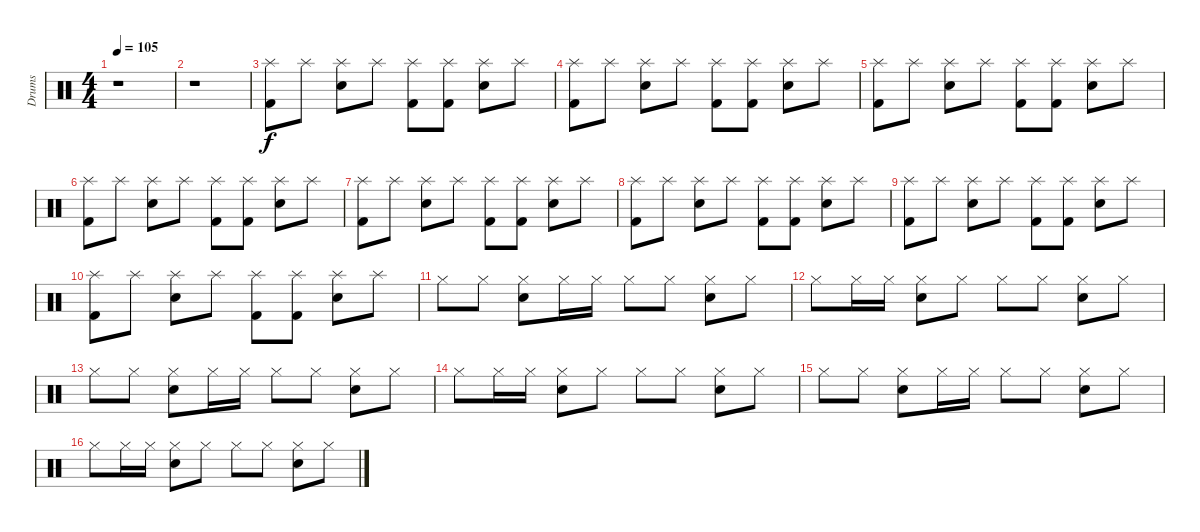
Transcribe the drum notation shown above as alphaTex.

\track ("Drums" "Drums") {instrument percussion}
\staff {score}
\articulation defaults
\ts (4 4)
\tempo 105
\clef neutral
\ks c
r.1{dy f} |
r.1 |
("Splash (hit)" "Kick (hit) 2").8 "Splash (hit)".8 ("Splash (hit)" "Snare (hit) 2").8 "Splash (hit)".8 ("Splash (hit)" "Kick (hit) 2").8 ("Splash (hit)" "Kick (hit) 2").8 ("Splash (hit)" "Snare (hit) 2").8 "Splash (hit)".8 |
("Splash (hit)" "Kick (hit) 2").8 "Splash (hit)".8 ("Splash (hit)" "Snare (hit) 2").8 "Splash (hit)".8 ("Splash (hit)" "Kick (hit) 2").8 ("Splash (hit)" "Kick (hit) 2").8 ("Splash (hit)" "Snare (hit) 2").8 "Splash (hit)".8 |
("Splash (hit)" "Kick (hit) 2").8 "Splash (hit)".8 ("Splash (hit)" "Snare (hit) 2").8 "Splash (hit)".8 ("Splash (hit)" "Kick (hit) 2").8 ("Splash (hit)" "Kick (hit) 2").8 ("Splash (hit)" "Snare (hit) 2").8 "Splash (hit)".8 |
("Splash (hit)" "Kick (hit) 2").8 "Splash (hit)".8 ("Splash (hit)" "Snare (hit) 2").8 "Splash (hit)".8 ("Splash (hit)" "Kick (hit) 2").8 ("Splash (hit)" "Kick (hit) 2").8 ("Splash (hit)" "Snare (hit) 2").8 "Splash (hit)".8 |
("Splash (hit)" "Kick (hit) 2").8 "Splash (hit)".8 ("Splash (hit)" "Snare (hit) 2").8 "Splash (hit)".8 ("Splash (hit)" "Kick (hit) 2").8 ("Splash (hit)" "Kick (hit) 2").8 ("Splash (hit)" "Snare (hit) 2").8 "Splash (hit)".8 |
("Splash (hit)" "Kick (hit) 2").8 "Splash (hit)".8 ("Splash (hit)" "Snare (hit) 2").8 "Splash (hit)".8 ("Splash (hit)" "Kick (hit) 2").8 ("Splash (hit)" "Kick (hit) 2").8 ("Splash (hit)" "Snare (hit) 2").8 "Splash (hit)".8 |
("Splash (hit)" "Kick (hit) 2").8 "Splash (hit)".8 ("Splash (hit)" "Snare (hit) 2").8 "Splash (hit)".8 ("Splash (hit)" "Kick (hit) 2").8 ("Splash (hit)" "Kick (hit) 2").8 ("Splash (hit)" "Snare (hit) 2").8 "Splash (hit)".8 |
("Splash (hit)" "Kick (hit) 2").8 "Splash (hit)".8 ("Splash (hit)" "Snare (hit) 2").8 "Splash (hit)".8 ("Splash (hit)" "Kick (hit) 2").8 ("Splash (hit)" "Kick (hit) 2").8 ("Splash (hit)" "Snare (hit) 2").8 "Splash (hit)".8 |
"Hi-Hat (closed)".8 "Hi-Hat (closed)".8 ("Hi-Hat (closed)" "Snare (hit) 2").8 "Hi-Hat (closed)".16 "Hi-Hat (closed)".16 "Hi-Hat (closed)".8 "Hi-Hat (closed)".8 ("Hi-Hat (closed)" "Snare (hit) 2").8 "Hi-Hat (closed)".8 |
"Hi-Hat (closed)".8 "Hi-Hat (closed)".16 "Hi-Hat (closed)".16 ("Hi-Hat (closed)" "Snare (hit) 2").8 "Hi-Hat (closed)".8 "Hi-Hat (closed)".8 "Hi-Hat (closed)".8 ("Hi-Hat (closed)" "Snare (hit) 2").8 "Hi-Hat (closed)".8 |
"Hi-Hat (closed)".8 "Hi-Hat (closed)".8 ("Hi-Hat (closed)" "Snare (hit) 2").8 "Hi-Hat (closed)".16 "Hi-Hat (closed)".16 "Hi-Hat (closed)".8 "Hi-Hat (closed)".8 ("Hi-Hat (closed)" "Snare (hit) 2").8 "Hi-Hat (closed)".8 |
"Hi-Hat (closed)".8 "Hi-Hat (closed)".16 "Hi-Hat (closed)".16 ("Hi-Hat (closed)" "Snare (hit) 2").8 "Hi-Hat (closed)".8 "Hi-Hat (closed)".8 "Hi-Hat (closed)".8 ("Hi-Hat (closed)" "Snare (hit) 2").8 "Hi-Hat (closed)".8 |
"Hi-Hat (closed)".8 "Hi-Hat (closed)".8 ("Hi-Hat (closed)" "Snare (hit) 2").8 "Hi-Hat (closed)".16 "Hi-Hat (closed)".16 "Hi-Hat (closed)".8 "Hi-Hat (closed)".8 ("Hi-Hat (closed)" "Snare (hit) 2").8 "Hi-Hat (closed)".8 |
"Hi-Hat (closed)".8 "Hi-Hat (closed)".16 "Hi-Hat (closed)".16 ("Hi-Hat (closed)" "Snare (hit) 2").8 "Hi-Hat (closed)".8 "Hi-Hat (closed)".8 "Hi-Hat (closed)".8 ("Hi-Hat (closed)" "Snare (hit) 2").8 "Hi-Hat (closed)".8
